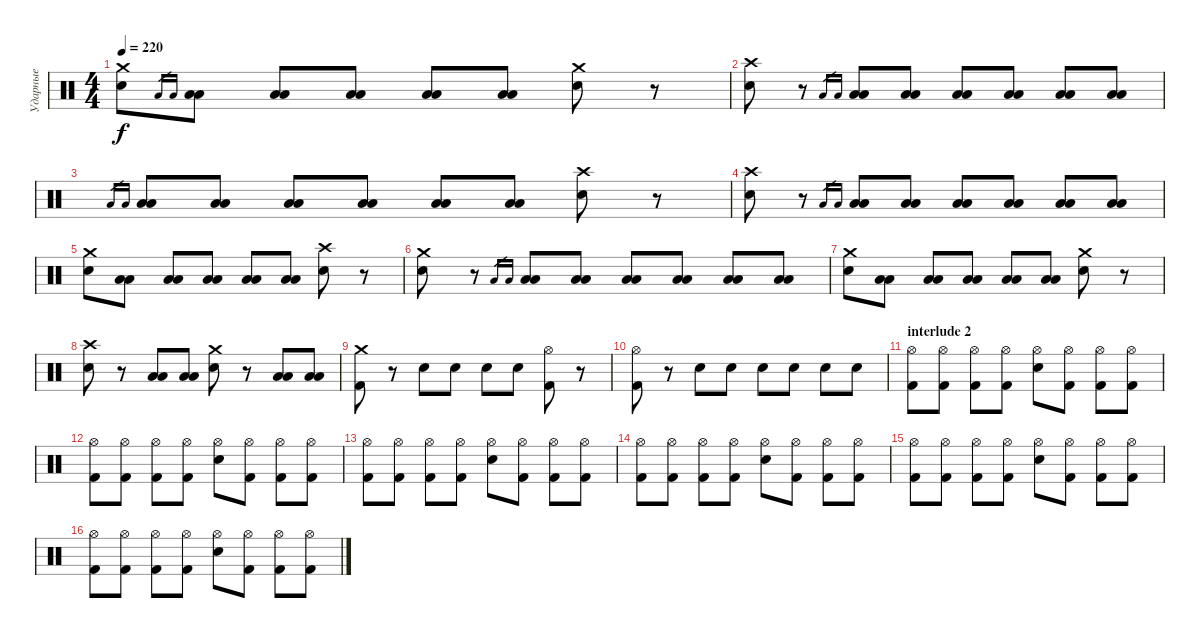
\track ("Ударные" "Ударные") {instrument percussion}
\staff {score}
\articulation defaults
\ts (4 4)
\tempo 220
\clef neutral
\ks c
("Crash medium (hit)" "Electric Snare (hit)").8{dy f} "Low Tom (hit)".16{gr} "Low Tom (hit)".16{gr} ("Low Tom (hit)" "Low Tom (hit)").8 ("Low Tom (hit)" "Low Tom (hit)").8 ("Low Tom (hit)" "Low Tom (hit)").8 ("Low Tom (hit)" "Low Tom (hit)").8 ("Low Tom (hit)" "Low Tom (hit)").8 ("Crash medium (hit)" "Electric Snare (hit)").8 r.8 |
("Crash high (hit)" "Electric Snare (hit)").8 r.8 "Low Tom (hit)".16{gr} "Low Tom (hit)".16{gr} ("Low Tom (hit)" "Low Tom (hit)").8 ("Low Tom (hit)" "Low Tom (hit)").8 ("Low Tom (hit)" "Low Tom (hit)").8 ("Low Tom (hit)" "Low Tom (hit)").8 ("Low Tom (hit)" "Low Tom (hit)").8 ("Low Tom (hit)" "Low Tom (hit)").8 |
"Low Tom (hit)".16{gr} "Low Tom (hit)".16{gr} ("Low Tom (hit)" "Low Tom (hit)").8 ("Low Tom (hit)" "Low Tom (hit)").8 ("Low Tom (hit)" "Low Tom (hit)").8 ("Low Tom (hit)" "Low Tom (hit)").8 ("Low Tom (hit)" "Low Tom (hit)").8 ("Low Tom (hit)" "Low Tom (hit)").8 ("Crash high (hit)" "Electric Snare (hit)").8 r.8 |
("Crash high (hit)" "Electric Snare (hit)").8 r.8 "Low Tom (hit)".16{gr} "Low Tom (hit)".16{gr} ("Low Tom (hit)" "Low Tom (hit)").8 ("Low Tom (hit)" "Low Tom (hit)").8 ("Low Tom (hit)" "Low Tom (hit)").8 ("Low Tom (hit)" "Low Tom (hit)").8 ("Low Tom (hit)" "Low Tom (hit)").8 ("Low Tom (hit)" "Low Tom (hit)").8 |
("Crash medium (hit)" "Electric Snare (hit)").8 ("Low Tom (hit)" "Low Tom (hit)").8 ("Low Tom (hit)" "Low Tom (hit)").8 ("Low Tom (hit)" "Low Tom (hit)").8 ("Low Tom (hit)" "Low Tom (hit)").8 ("Low Tom (hit)" "Low Tom (hit)").8 ("Crash high (hit)" "Electric Snare (hit)").8 r.8 |
("Crash medium (hit)" "Electric Snare (hit)").8 r.8 "Low Tom (hit)".16{gr} "Low Tom (hit)".16{gr} ("Low Tom (hit)" "Low Tom (hit)").8 ("Low Tom (hit)" "Low Tom (hit)").8 ("Low Tom (hit)" "Low Tom (hit)").8 ("Low Tom (hit)" "Low Tom (hit)").8 ("Low Tom (hit)" "Low Tom (hit)").8 ("Low Tom (hit)" "Low Tom (hit)").8 |
("Crash medium (hit)" "Electric Snare (hit)").8 ("Low Tom (hit)" "Low Tom (hit)").8 ("Low Tom (hit)" "Low Tom (hit)").8 ("Low Tom (hit)" "Low Tom (hit)").8 ("Low Tom (hit)" "Low Tom (hit)").8 ("Low Tom (hit)" "Low Tom (hit)").8 ("Crash medium (hit)" "Electric Snare (hit)").8 r.8 |
("Crash high (hit)" "Electric Snare (hit)").8 r.8 ("Low Tom (hit)" "Low Tom (hit)").8 ("Low Tom (hit)" "Low Tom (hit)").8 ("Crash medium (hit)" "Electric Snare (hit)").8 r.8 ("Low Tom (hit)" "Low Tom (hit)").8 ("Low Tom (hit)" "Low Tom (hit)").8 |
("Crash medium (hit)" "Kick (hit) 2").8 r.8 "Electric Snare (hit)".8 "Electric Snare (hit)".8 "Electric Snare (hit)".8 "Electric Snare (hit)".8 ("Hi-Hat (open)" "Kick (hit) 2").8 r.8 |
("Hi-Hat (open)" "Kick (hit) 2").8 r.8 "Electric Snare (hit)".8 "Electric Snare (hit)".8 "Electric Snare (hit)".8 "Electric Snare (hit)".8 "Electric Snare (hit)".8 "Electric Snare (hit)".8 |
\section ("" "interlude 2")
("Hi-Hat (open)" "Kick (hit) 2").8 ("Hi-Hat (open)" "Kick (hit) 2").8 ("Hi-Hat (open)" "Kick (hit) 2").8 ("Hi-Hat (open)" "Kick (hit) 2").8 ("Hi-Hat (open)" "Electric Snare (hit)").8 ("Hi-Hat (open)" "Kick (hit) 2").8 ("Hi-Hat (open)" "Kick (hit) 2").8 ("Hi-Hat (open)" "Kick (hit) 2").8 |
("Hi-Hat (open)" "Kick (hit) 2").8 ("Hi-Hat (open)" "Kick (hit) 2").8 ("Hi-Hat (open)" "Kick (hit) 2").8 ("Hi-Hat (open)" "Kick (hit) 2").8 ("Hi-Hat (open)" "Electric Snare (hit)").8 ("Hi-Hat (open)" "Kick (hit) 2").8 ("Hi-Hat (open)" "Kick (hit) 2").8 ("Hi-Hat (open)" "Kick (hit) 2").8 |
("Hi-Hat (open)" "Kick (hit) 2").8 ("Hi-Hat (open)" "Kick (hit) 2").8 ("Hi-Hat (open)" "Kick (hit) 2").8 ("Hi-Hat (open)" "Kick (hit) 2").8 ("Hi-Hat (open)" "Electric Snare (hit)").8 ("Hi-Hat (open)" "Kick (hit) 2").8 ("Hi-Hat (open)" "Kick (hit) 2").8 ("Hi-Hat (open)" "Kick (hit) 2").8 |
("Hi-Hat (open)" "Kick (hit) 2").8 ("Hi-Hat (open)" "Kick (hit) 2").8 ("Hi-Hat (open)" "Kick (hit) 2").8 ("Hi-Hat (open)" "Kick (hit) 2").8 ("Hi-Hat (open)" "Electric Snare (hit)").8 ("Hi-Hat (open)" "Kick (hit) 2").8 ("Hi-Hat (open)" "Kick (hit) 2").8 ("Hi-Hat (open)" "Kick (hit) 2").8 |
("Hi-Hat (open)" "Kick (hit) 2").8 ("Hi-Hat (open)" "Kick (hit) 2").8 ("Hi-Hat (open)" "Kick (hit) 2").8 ("Hi-Hat (open)" "Kick (hit) 2").8 ("Hi-Hat (open)" "Electric Snare (hit)").8 ("Hi-Hat (open)" "Kick (hit) 2").8 ("Hi-Hat (open)" "Kick (hit) 2").8 ("Hi-Hat (open)" "Kick (hit) 2").8 |
("Hi-Hat (open)" "Kick (hit) 2").8 ("Hi-Hat (open)" "Kick (hit) 2").8 ("Hi-Hat (open)" "Kick (hit) 2").8 ("Hi-Hat (open)" "Kick (hit) 2").8 ("Hi-Hat (open)" "Electric Snare (hit)").8 ("Hi-Hat (open)" "Kick (hit) 2").8 ("Hi-Hat (open)" "Kick (hit) 2").8 ("Hi-Hat (open)" "Kick (hit) 2").8
